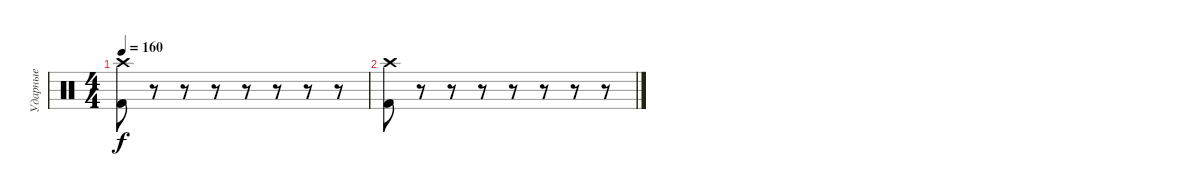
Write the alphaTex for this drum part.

\track ("Ударные" "Ударные") {instrument percussion}
\staff {score}
\articulation defaults
\ts (4 4)
\tempo 160
\clef neutral
\ks c
("Crash high (hit)" "Kick (hit) 2").8{dy f} r.8 r.8 r.8 r.8 r.8 r.8 r.8 |
("Crash high (hit)" "Kick (hit) 2").8 r.8 r.8 r.8 r.8 r.8 r.8 r.8
